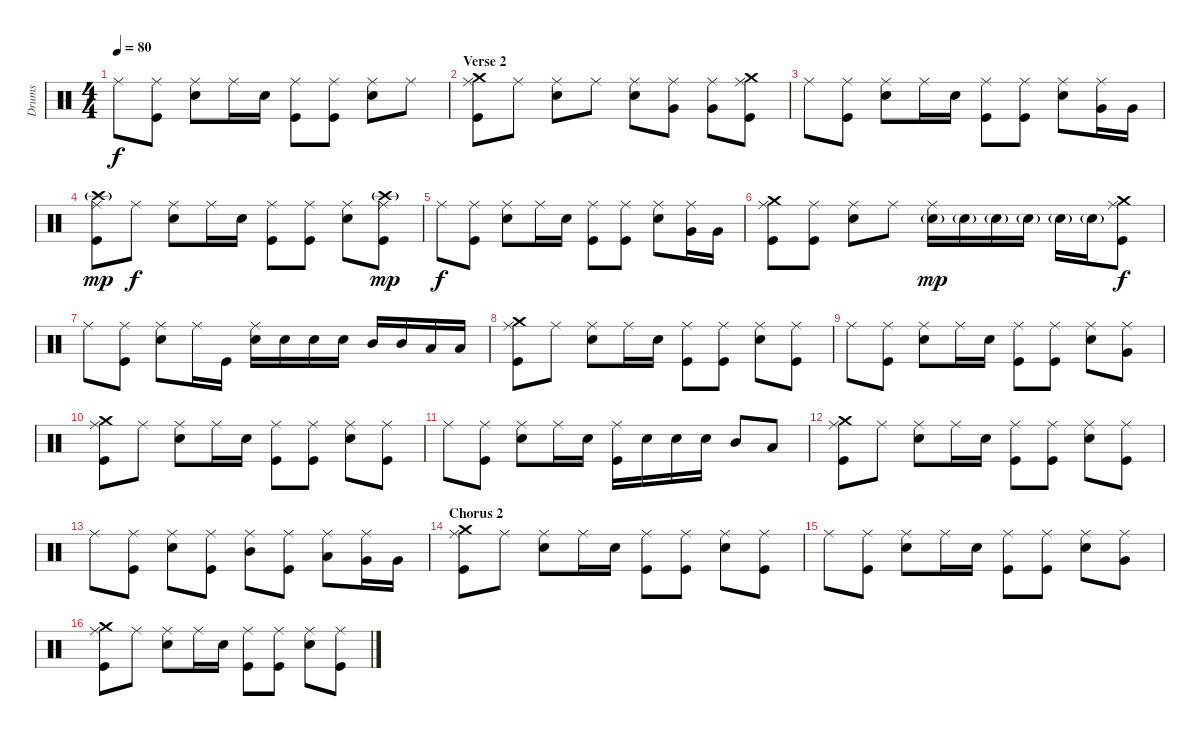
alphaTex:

\track ("Drums" "Drums") {instrument percussion}
\staff {score}
\articulation defaults
\ts (4 4)
\tempo 80
\clef neutral
\ks c "Ride (middle)".8{dy f}
("Ride (middle)" "Kick (hit)").8 ("Ride (middle)" "Snare (hit) 2").8 "Ride (middle)".16 "Snare (hit) 2".16 ("Ride (middle)" "Kick (hit)").8 ("Ride (middle)" "Kick (hit)").8 ("Ride (middle)" "Snare (hit) 2").8 "Ride (middle)".8 |
\section ("" "Verse 2")
("Ride (middle)" "Crash medium (hit)" "Kick (hit)").8 "Ride (middle)".8 ("Ride (middle)" "Snare (hit) 2").8 "Ride (middle)".8 ("Ride (middle)" "Snare (hit) 2").8 ("Ride (middle)" "Very Low Tom (hit)").8 ("Ride (middle)" "Very Low Tom (hit)").8 ("Ride (middle)" "Crash medium (hit)" "Kick (hit)").8 |
"Ride (middle)".8 ("Ride (middle)" "Kick (hit)").8 ("Ride (middle)" "Snare (hit) 2").8 "Ride (middle)".16 "Snare (hit) 2".16 ("Ride (middle)" "Kick (hit)").8 ("Ride (middle)" "Kick (hit)").8 ("Ride (middle)" "Snare (hit) 2").8 ("Ride (middle)" "Very Low Tom (hit)").16 "Very Low Tom (hit)".16 |
("Ride (middle)" "Crash high (hit)"{g} "Kick (hit)").8{dy mp} "Ride (middle)".8{dy f} ("Ride (middle)" "Snare (hit) 2").8 "Ride (middle)".16 "Snare (hit) 2".16 ("Ride (middle)" "Kick (hit)").8 ("Ride (middle)" "Kick (hit)").8 ("Ride (middle)" "Snare (hit) 2").8 ("Ride (middle)" "Crash high (hit)"{g} "Kick (hit)").8{dy mp} |
"Ride (middle)".8{dy f} ("Ride (middle)" "Kick (hit)").8 ("Ride (middle)" "Snare (hit) 2").8 "Ride (middle)".16 "Snare (hit) 2".16 ("Ride (middle)" "Kick (hit)").8 ("Ride (middle)" "Kick (hit)").8 ("Ride (middle)" "Snare (hit) 2").8 ("Ride (middle)" "Very Low Tom (hit)").16 "Very Low Tom (hit)".16 |
("Ride (middle)" "Crash medium (hit)" "Kick (hit)").8 ("Ride (middle)" "Kick (hit)").8 ("Ride (middle)" "Snare (hit) 2").8 "Ride (middle)".8 ("Ride (middle)" "Snare (hit) 2"{g}).16{dy mp} "Snare (hit) 2"{g}.16 "Snare (hit) 2"{g}.16 "Snare (hit) 2"{g}.16 "Snare (hit) 2"{g}.16 "Snare (hit) 2"{g}.16 ("Ride (middle)" "Crash medium (hit)" "Kick (hit)").8{dy f} |
"Ride (middle)".8 ("Ride (middle)" "Kick (hit)").8 ("Ride (middle)" "Snare (hit) 2").8 "Ride (middle)".16 "Kick (hit)".16 ("Ride (middle)" "Snare (hit) 2").16 "Snare (hit) 2".16 "Snare (hit) 2".16 "Snare (hit) 2".16 "Mid Tom (hit)".16 "Mid Tom (hit)".16 "Low Tom (hit)".16 "Low Tom (hit)".16 |
("Ride (middle)" "Crash medium (hit)" "Kick (hit)").8 "Ride (middle)".8 ("Ride (middle)" "Snare (hit) 2").8 "Ride (middle)".16 "Snare (hit) 2".16 ("Ride (middle)" "Kick (hit)").8 ("Ride (middle)" "Kick (hit)").8 ("Ride (middle)" "Snare (hit) 2").8 ("Ride (middle)" "Kick (hit)").8 |
"Ride (middle)".8 ("Ride (middle)" "Kick (hit)").8 ("Ride (middle)" "Snare (hit) 2").8 "Ride (middle)".16 "Snare (hit) 2".16 ("Ride (middle)" "Kick (hit)").8 ("Ride (middle)" "Kick (hit)").8 ("Ride (middle)" "Snare (hit) 2").8 ("Ride (middle)" "Very Low Tom (hit)").8 |
\section ("" "")
("Ride (middle)" "Crash medium (hit)" "Kick (hit)").8 "Ride (middle)".8 ("Ride (middle)" "Snare (hit) 2").8 "Ride (middle)".16 "Snare (hit) 2".16 ("Ride (middle)" "Kick (hit)").8 ("Ride (middle)" "Kick (hit)").8 ("Ride (middle)" "Snare (hit) 2").8 ("Ride (middle)" "Kick (hit)").8 |
"Ride (middle)".8 ("Ride (middle)" "Kick (hit)").8 ("Ride (middle)" "Snare (hit) 2").8 "Ride (middle)".16 "Snare (hit) 2".16 ("Ride (middle)" "Kick (hit)").16 "Snare (hit) 2".16 "Snare (hit) 2".16 "Snare (hit) 2".16 "Mid Tom (hit)".8 "Low Tom (hit)".8 |
("Ride (middle)" "Crash medium (hit)" "Kick (hit)").8 "Ride (middle)".8 ("Ride (middle)" "Snare (hit) 2").8 "Ride (middle)".16 "Snare (hit) 2".16 ("Ride (middle)" "Kick (hit)").8 ("Ride (middle)" "Kick (hit)").8 ("Ride (middle)" "Snare (hit) 2").8 ("Ride (middle)" "Kick (hit)").8 |
"Ride (middle)".8 ("Ride (middle)" "Kick (hit)").8 ("Ride (middle)" "Snare (hit) 2").8 ("Ride (middle)" "Kick (hit)").8 ("Ride (middle)" "Mid Tom (hit)").8 ("Ride (middle)" "Kick (hit)").8 ("Ride (middle)" "Low Tom (hit)").8 ("Ride (middle)" "Very Low Tom (hit)").16 "Very Low Tom (hit)".16 |
\section ("" "Chorus 2")
("Ride (middle)" "Crash medium (hit)" "Kick (hit)").8 "Ride (middle)".8 ("Ride (middle)" "Snare (hit) 2").8 "Ride (middle)".16 "Snare (hit) 2".16 ("Ride (middle)" "Kick (hit)").8 ("Ride (middle)" "Kick (hit)").8 ("Ride (middle)" "Snare (hit) 2").8 ("Ride (middle)" "Kick (hit)").8 |
"Ride (middle)".8 ("Ride (middle)" "Kick (hit)").8 ("Ride (middle)" "Snare (hit) 2").8 "Ride (middle)".16 "Snare (hit) 2".16 ("Ride (middle)" "Kick (hit)").8 ("Ride (middle)" "Kick (hit)").8 ("Ride (middle)" "Snare (hit) 2").8 ("Ride (middle)" "Very Low Tom (hit)").8 |
("Ride (middle)" "Crash medium (hit)" "Kick (hit)").8 "Ride (middle)".8 ("Ride (middle)" "Snare (hit) 2").8 "Ride (middle)".16 "Snare (hit) 2".16 ("Ride (middle)" "Kick (hit)").8 ("Ride (middle)" "Kick (hit)").8 ("Ride (middle)" "Snare (hit) 2").8 ("Ride (middle)" "Kick (hit)").8
